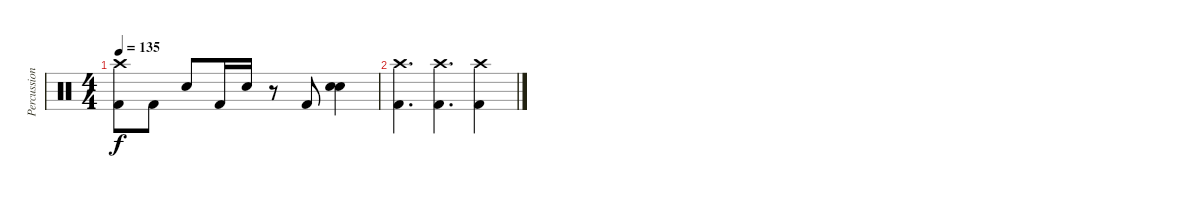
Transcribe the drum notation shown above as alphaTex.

\track ("Percussions" "Percussion") {instrument percussion}
\staff {score}
\articulation defaults
\ts (4 4)
\tempo 135
\clef neutral
\ks c
("Crash high (hit)" "Kick (hit) 2").8{dy f} "Kick (hit) 2".8 "Snare (hit) 2".8 "Kick (hit) 2".16 "Snare (hit) 2".16 r.8 "Kick (hit) 2".8 ("Snare (hit) 2" "Snare (hit) 2").4{bd 240} |
("Crash high (hit)" "Kick (hit) 2").4{d} ("Crash high (hit)" "Kick (hit) 2").4{d} ("Crash high (hit)" "Kick (hit) 2").4
